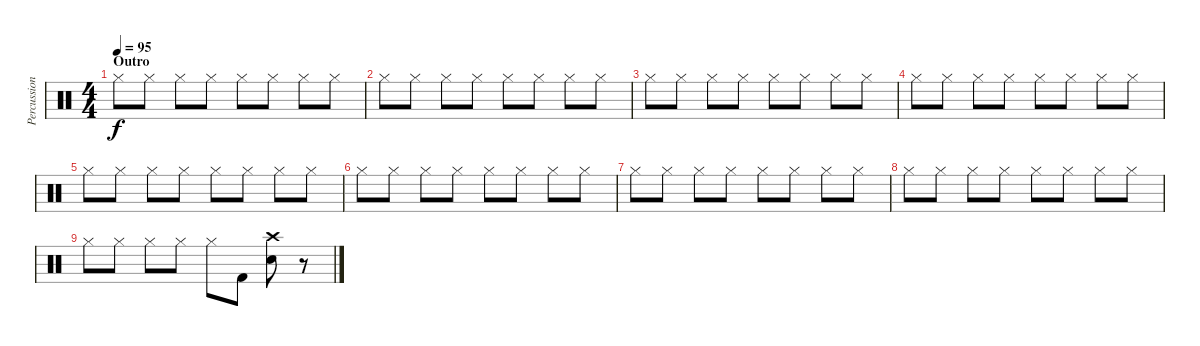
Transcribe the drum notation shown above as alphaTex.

\track ("Percussioni" "Percussion") {instrument percussion}
\staff {score}
\articulation defaults
\ts (4 4)
\section ("" "Outro")
\tempo 95
\clef neutral
\ks c "Hi-Hat (closed)".8{dy f} "Hi-Hat (closed)".8 "Hi-Hat (closed)".8 "Hi-Hat (closed)".8 "Hi-Hat (closed)".8 "Hi-Hat (closed)".8 "Hi-Hat (closed)".8 "Hi-Hat (closed)".8
|
"Hi-Hat (closed)".8 "Hi-Hat (closed)".8 "Hi-Hat (closed)".8 "Hi-Hat (closed)".8 "Hi-Hat (closed)".8 "Hi-Hat (closed)".8 "Hi-Hat (closed)".8 "Hi-Hat (closed)".8 |
"Hi-Hat (closed)".8 "Hi-Hat (closed)".8 "Hi-Hat (closed)".8 "Hi-Hat (closed)".8 "Hi-Hat (closed)".8 "Hi-Hat (closed)".8 "Hi-Hat (closed)".8 "Hi-Hat (closed)".8 |
"Hi-Hat (closed)".8 "Hi-Hat (closed)".8 "Hi-Hat (closed)".8 "Hi-Hat (closed)".8 "Hi-Hat (closed)".8 "Hi-Hat (closed)".8 "Hi-Hat (closed)".8 "Hi-Hat (closed)".8 |
"Hi-Hat (closed)".8 "Hi-Hat (closed)".8 "Hi-Hat (closed)".8 "Hi-Hat (closed)".8 "Hi-Hat (closed)".8 "Hi-Hat (closed)".8 "Hi-Hat (closed)".8 "Hi-Hat (closed)".8 |
"Hi-Hat (closed)".8 "Hi-Hat (closed)".8 "Hi-Hat (closed)".8 "Hi-Hat (closed)".8 "Hi-Hat (closed)".8 "Hi-Hat (closed)".8 "Hi-Hat (closed)".8 "Hi-Hat (closed)".8 |
"Hi-Hat (closed)".8 "Hi-Hat (closed)".8 "Hi-Hat (closed)".8 "Hi-Hat (closed)".8 "Hi-Hat (closed)".8 "Hi-Hat (closed)".8 "Hi-Hat (closed)".8 "Hi-Hat (closed)".8 |
"Hi-Hat (closed)".8 "Hi-Hat (closed)".8 "Hi-Hat (closed)".8 "Hi-Hat (closed)".8 "Hi-Hat (closed)".8 "Hi-Hat (closed)".8 "Hi-Hat (closed)".8 "Hi-Hat (closed)".8 |
"Hi-Hat (closed)".8 "Hi-Hat (closed)".8 "Hi-Hat (closed)".8 "Hi-Hat (closed)".8 "Hi-Hat (closed)".8 "Kick (hit) 2".8 ("Crash high (hit)" "Snare (hit) 2").8 r.8
